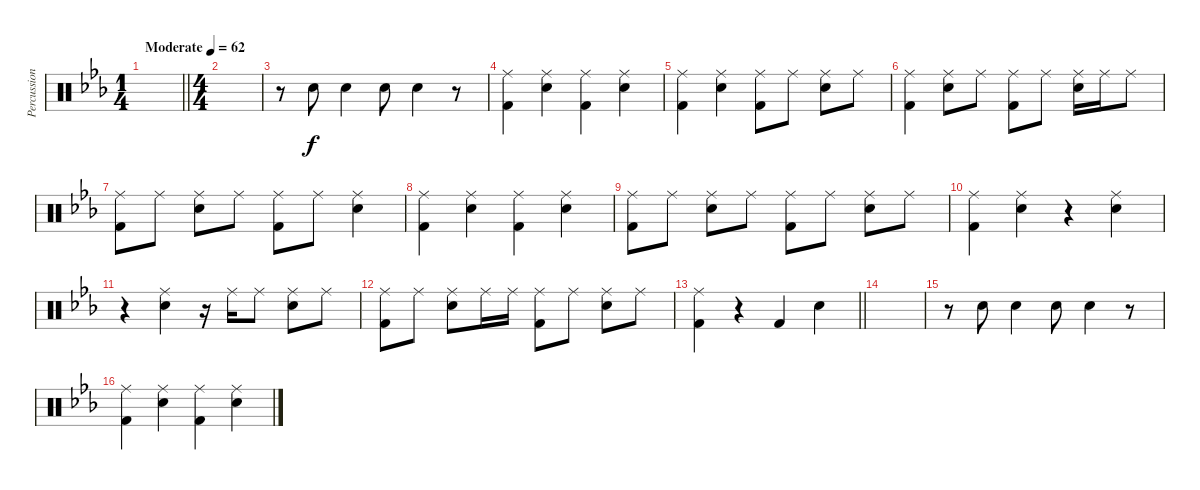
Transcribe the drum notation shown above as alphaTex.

\track ("Percussion" "Percussion") {instrument percussion}
\staff {score}
\articulation defaults
\ts (1 4)
\tempo (62 "Moderate")
\clef neutral
\barLineRight lightlight
\ks eb
|
\ts (4 4)
|
r.8 "Snare (hit) 2".8 "Snare (hit) 2".4 "Snare (hit) 2".8 "Snare (hit) 2".4 r.8 |
("Ride (middle)" "Kick (hit) 2").4 ("Ride (middle)" "Snare (hit) 2").4 ("Ride (middle)" "Kick (hit) 2").4 ("Ride (middle)" "Snare (hit) 2").4 |
("Ride (middle)" "Kick (hit) 2").4 ("Ride (middle)" "Snare (hit) 2").4 ("Ride (middle)" "Kick (hit) 2").8 "Ride (middle)".8 ("Ride (middle)" "Snare (hit) 2").8 "Ride (middle)".8 |
("Ride (middle)" "Kick (hit) 2").4 ("Ride (middle)" "Snare (hit) 2").8 "Ride (middle)".8 ("Ride (middle)" "Kick (hit) 2").8 "Ride (middle)".8 ("Ride (middle)" "Snare (hit) 2").16 "Ride (middle)".16 "Ride (middle)".8 |
("Ride (middle)" "Kick (hit) 2").8 "Ride (middle)".8 ("Ride (middle)" "Snare (hit) 2").8 "Ride (middle)".8 ("Ride (middle)" "Kick (hit) 2").8 "Ride (middle)".8 ("Ride (middle)" "Snare (hit) 2").4 |
("Ride (middle)" "Kick (hit) 2").4 ("Ride (middle)" "Snare (hit) 2").4 ("Ride (middle)" "Kick (hit) 2").4 ("Ride (middle)" "Snare (hit) 2").4 |
("Ride (middle)" "Kick (hit) 2").8 "Ride (middle)".8 ("Ride (middle)" "Snare (hit) 2").8 "Ride (middle)".8 ("Ride (middle)" "Kick (hit) 2").8 "Ride (middle)".8 ("Ride (middle)" "Snare (hit) 2").8 "Ride (middle)".8 |
("Ride (middle)" "Kick (hit) 2").4 ("Ride (middle)" "Snare (hit) 2").4 r.4 ("Ride (middle)" "Snare (hit) 2").4 |
r.4 ("Ride (middle)" "Snare (hit) 2").4 r.16 "Ride (middle)".16 "Ride (middle)".8 ("Ride (middle)" "Snare (hit) 2").8 "Ride (middle)".8 |
("Ride (middle)" "Kick (hit) 2").8 "Ride (middle)".8 ("Ride (middle)" "Snare (hit) 2").8 "Ride (middle)".16 "Ride (middle)".16 ("Ride (middle)" "Kick (hit) 2").8 "Ride (middle)".8 ("Ride (middle)" "Snare (hit) 2").8 "Ride (middle)".8 |
\barLineRight lightlight
("Ride (middle)" "Kick (hit) 2").4 r.4 "Kick (hit) 2".4 "Snare (hit) 2".4 |
|
r.8 "Snare (hit) 2".8 "Snare (hit) 2".4 "Snare (hit) 2".8 "Snare (hit) 2".4 r.8 |
("Ride (middle)" "Kick (hit) 2").4 ("Ride (middle)" "Snare (hit) 2").4 ("Ride (middle)" "Kick (hit) 2").4 ("Ride (middle)" "Snare (hit) 2").4
